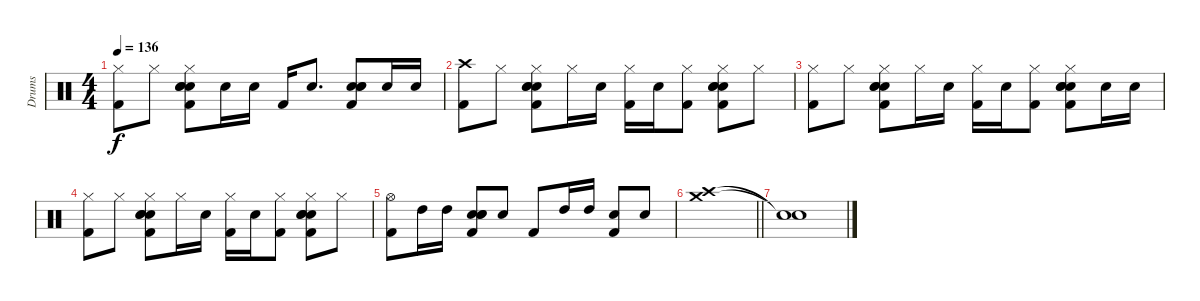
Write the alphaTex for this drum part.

\track ("Drums" "Drums") {instrument percussion}
\staff {score}
\articulation defaults
\ts (4 4)
\tempo 136
\clef neutral
\ks c
("Hi-Hat (closed)" "Kick (hit) 2").8{dy f} "Hi-Hat (closed)".8 ("Hi-Hat (closed)" "Electric Snare (hit)" "Electric Snare (hit)" "Electric Snare (hit)" "Kick (hit) 2").8 "Electric Snare (hit)".16 "Electric Snare (hit)".16 "Kick (hit) 2".16 "Electric Snare (hit)".8{d} ("Electric Snare (hit)" "Electric Snare (hit)" "Electric Snare (hit)" "Kick (hit) 2").8 "Electric Snare (hit)".16 "Electric Snare (hit)".16 |
("Crash high (hit)" "Kick (hit) 2").8 "Hi-Hat (closed)".8 ("Hi-Hat (closed)" "Electric Snare (hit)" "Electric Snare (hit)" "Electric Snare (hit)" "Kick (hit) 2").8 "Hi-Hat (closed)".16 "Electric Snare (hit)".16 ("Hi-Hat (closed)" "Kick (hit) 2").16 "Electric Snare (hit)".16 ("Hi-Hat (closed)" "Kick (hit) 2").8 ("Hi-Hat (closed)" "Electric Snare (hit)" "Electric Snare (hit)" "Electric Snare (hit)" "Kick (hit) 2").8 "Hi-Hat (closed)".8 |
("Hi-Hat (closed)" "Kick (hit) 2").8 "Hi-Hat (closed)".8 ("Hi-Hat (closed)" "Electric Snare (hit)" "Electric Snare (hit)" "Electric Snare (hit)" "Kick (hit) 2").8 "Hi-Hat (closed)".16 "Electric Snare (hit)".16 ("Hi-Hat (closed)" "Kick (hit) 2").16 "Electric Snare (hit)".16 ("Hi-Hat (closed)" "Kick (hit) 2").8 ("Hi-Hat (closed)" "Electric Snare (hit)" "Electric Snare (hit)" "Electric Snare (hit)" "Kick (hit) 2").8 "Electric Snare (hit)".16 "Electric Snare (hit)".16 |
("Hi-Hat (closed)" "Kick (hit) 2").8 "Hi-Hat (closed)".8 ("Hi-Hat (closed)" "Electric Snare (hit)" "Electric Snare (hit)" "Electric Snare (hit)" "Kick (hit) 2").8 "Hi-Hat (closed)".16 "Electric Snare (hit)".16 ("Hi-Hat (closed)" "Kick (hit) 2").16 "Electric Snare (hit)".16 ("Hi-Hat (closed)" "Kick (hit) 2").8 ("Hi-Hat (closed)" "Electric Snare (hit)" "Electric Snare (hit)" "Electric Snare (hit)" "Kick (hit) 2").8 "Hi-Hat (closed)".8 |
("Hi-Hat (open)" "Kick (hit) 2").8 "High Tom (hit)".16 "High Tom (hit)".16 ("Electric Snare (hit)" "Electric Snare (hit)" "Electric Snare (hit)" "Kick (hit) 2").8 "Electric Snare (hit)".8 "Kick (hit) 2".8 "High Tom (hit)".16 "High Tom (hit)".16 ("Electric Snare (hit)" "Kick (hit) 2").8 "Electric Snare (hit)".8 |
\barLineRight lightlight
("Crash medium (hit)" "Crash high (hit)").1 |
("Snare (hit)"{t} "Snare (hit)"{t}).1
